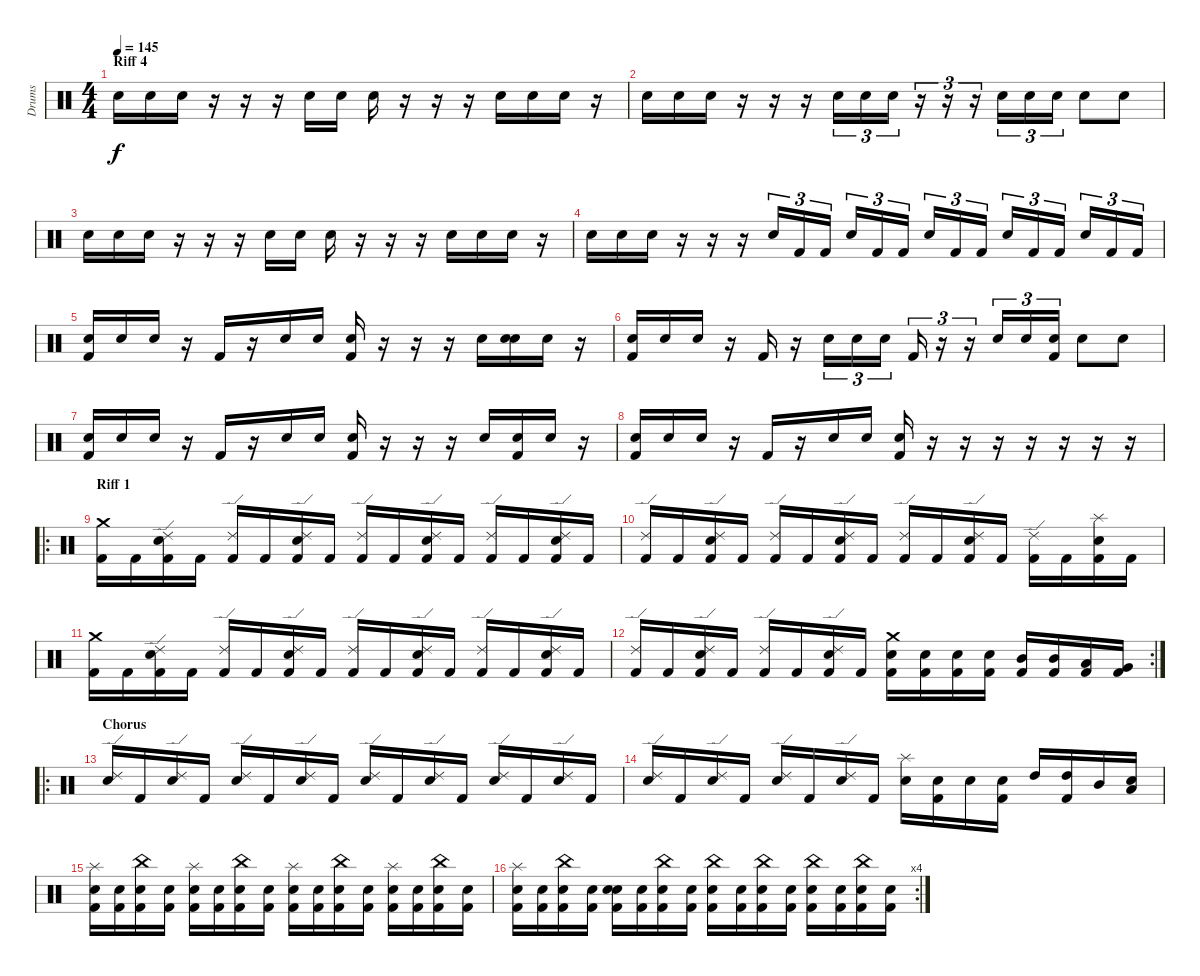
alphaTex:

\track ("Drums" "Drums") {instrument percussion}
\staff {score}
\articulation defaults
\ts (4 4)
\section ("" "Riff 4")
\tempo 145
\clef neutral
\ks c "Snare (hit) 2".16{dy f} "Snare (hit) 2".16 "Snare (hit) 2".16
r.16 r.16 r.16 "Snare (hit) 2".16 "Snare (hit) 2".16 "Snare (hit) 2".16 r.16 r.16 r.16 "Snare (hit) 2".16 "Snare (hit) 2".16 "Snare (hit) 2".16 r.16 |
"Snare (hit) 2".16 "Snare (hit) 2".16 "Snare (hit) 2".16 r.16 r.16 r.16 "Snare (hit) 2".16{tu (3 2)} "Snare (hit) 2".16{tu (3 2)} "Snare (hit) 2".16{tu (3 2)} r.16{tu (3 2)} r.16{tu (3 2)} r.16{tu (3 2)} "Snare (hit) 2".16{tu (3 2)} "Snare (hit) 2".16{tu (3 2)} "Snare (hit) 2".16{tu (3 2)} "Snare (hit) 2".8 "Snare (hit) 2".8 |
"Snare (hit) 2".16 "Snare (hit) 2".16 "Snare (hit) 2".16 r.16 r.16 r.16 "Snare (hit) 2".16 "Snare (hit) 2".16 "Snare (hit) 2".16 r.16 r.16 r.16 "Snare (hit) 2".16 "Snare (hit) 2".16 "Snare (hit) 2".16 r.16 |
"Snare (hit) 2".16 "Snare (hit) 2".16 "Snare (hit) 2".16 r.16 r.16 r.16 "Snare (hit) 2".16{tu (3 2)} "Kick (hit) 2".16{tu (3 2)} "Kick (hit) 2".16{tu (3 2)} "Snare (hit) 2".16{tu (3 2)} "Kick (hit) 2".16{tu (3 2)} "Kick (hit) 2".16{tu (3 2)} "Snare (hit) 2".16{tu (3 2)} "Kick (hit) 2".16{tu (3 2)} "Kick (hit) 2".16{tu (3 2)} "Snare (hit) 2".16{tu (3 2)} "Kick (hit) 2".16{tu (3 2)} "Kick (hit) 2".16{tu (3 2)} "Snare (hit) 2".16{tu (3 2)} "Kick (hit) 2".16{tu (3 2)} "Kick (hit) 2".16{tu (3 2)} |
("Kick (hit) 2" "Snare (hit) 2").16 "Snare (hit) 2".16 "Snare (hit) 2".16 r.16 "Kick (hit) 2".16 r.16 "Snare (hit) 2".16 "Snare (hit) 2".16 ("Kick (hit) 2" "Snare (hit) 2").16 r.16 r.16 r.16 "Snare (hit) 2".16 ("Snare (hit) 2" "Snare (hit) 2").16 "Snare (hit) 2".16 r.16 |
("Kick (hit) 2" "Snare (hit) 2").16 "Snare (hit) 2".16 "Snare (hit) 2".16 r.16 "Kick (hit) 2".16 r.16 "Snare (hit) 2".16{tu (3 2)} "Snare (hit) 2".16{tu (3 2)} "Snare (hit) 2".16{tu (3 2)} "Kick (hit) 2".16{tu (3 2)} r.16{tu (3 2)} r.16{tu (3 2)} "Snare (hit) 2".16{tu (3 2)} "Snare (hit) 2".16{tu (3 2)} ("Kick (hit) 2" "Snare (hit) 2").16{tu (3 2)} "Snare (hit) 2".8 "Snare (hit) 2".8 |
("Kick (hit) 2" "Snare (hit) 2").16 "Snare (hit) 2".16 "Snare (hit) 2".16 r.16 "Kick (hit) 2".16 r.16 "Snare (hit) 2".16 "Snare (hit) 2".16 ("Kick (hit) 2" "Snare (hit) 2").16 r.16 r.16 r.16 "Snare (hit) 2".16 ("Kick (hit) 2" "Snare (hit) 2").16 "Snare (hit) 2".16 r.16 |
("Kick (hit) 2" "Snare (hit) 2").16 "Snare (hit) 2".16 "Snare (hit) 2".16 r.16 "Kick (hit) 2".16 r.16 "Snare (hit) 2".16 "Snare (hit) 2".16 ("Kick (hit) 2" "Snare (hit) 2").16 r.16 r.16 r.16 r.16 r.16 r.16 r.16 |
\ro
\section ("" "Riff 1")
("Kick (hit) 2" "Crash medium (hit)").16 "Kick (hit) 2".16 ("Kick (hit) 2" "Snare (hit) 2" "Ride (edge) 2").16 "Kick (hit) 2".16 ("Kick (hit) 2" "Ride (edge) 2").16 "Kick (hit) 2".16 ("Kick (hit) 2" "Snare (hit) 2" "Ride (edge) 2").16 "Kick (hit) 2".16 ("Kick (hit) 2" "Ride (edge) 2").16 "Kick (hit) 2".16 ("Kick (hit) 2" "Snare (hit) 2" "Ride (edge) 2").16 "Kick (hit) 2".16 ("Kick (hit) 2" "Ride (edge) 2").16 "Kick (hit) 2".16 ("Kick (hit) 2" "Snare (hit) 2" "Ride (edge) 2").16 "Kick (hit) 2".16 |
("Kick (hit) 2" "Ride (edge) 2").16 "Kick (hit) 2".16 ("Kick (hit) 2" "Snare (hit) 2" "Ride (edge) 2").16 "Kick (hit) 2".16 ("Kick (hit) 2" "Ride (edge) 2").16 "Kick (hit) 2".16 ("Kick (hit) 2" "Snare (hit) 2" "Ride (edge) 2").16 "Kick (hit) 2".16 ("Kick (hit) 2" "Ride (edge) 2").16 "Kick (hit) 2".16 ("Kick (hit) 2" "Snare (hit) 2" "Ride (edge) 2").16 "Kick (hit) 2".16 ("Kick (hit) 2" "Ride (edge) 2").16 "Kick (hit) 2".16 ("Kick (hit) 2" "Snare (hit) 2" "Splash (hit)").16 "Kick (hit) 2".16 |
("Kick (hit) 2" "Crash medium (hit)").16 "Kick (hit) 2".16 ("Kick (hit) 2" "Snare (hit) 2" "Ride (edge) 2").16 "Kick (hit) 2".16 ("Kick (hit) 2" "Ride (edge) 2").16 "Kick (hit) 2".16 ("Kick (hit) 2" "Snare (hit) 2" "Ride (edge) 2").16 "Kick (hit) 2".16 ("Kick (hit) 2" "Ride (edge) 2").16 "Kick (hit) 2".16 ("Kick (hit) 2" "Snare (hit) 2" "Ride (edge) 2").16 "Kick (hit) 2".16 ("Kick (hit) 2" "Ride (edge) 2").16 "Kick (hit) 2".16 ("Kick (hit) 2" "Snare (hit) 2" "Ride (edge) 2").16 "Kick (hit) 2".16 |
\rc 2
("Kick (hit) 2" "Ride (edge) 2").16 "Kick (hit) 2".16 ("Kick (hit) 2" "Snare (hit) 2" "Ride (edge) 2").16 "Kick (hit) 2".16 ("Kick (hit) 2" "Ride (edge) 2").16 "Kick (hit) 2".16 ("Kick (hit) 2" "Snare (hit) 2" "Ride (edge) 2").16 "Kick (hit) 2".16 ("Kick (hit) 2" "Snare (hit) 2" "Crash medium (hit)").16 ("Kick (hit) 2" "Snare (hit) 2").16 ("Kick (hit) 2" "Snare (hit) 2").16 ("Kick (hit) 2" "Snare (hit) 2").16 ("Kick (hit) 2" "Mid Tom (hit)").16 ("Kick (hit) 2" "Mid Tom (hit)").16 ("Kick (hit) 2" "Low Tom (hit)").16 ("Kick (hit) 2" "Very Low Tom (hit)").16 |
\ro
\section ("" "Chorus")
("Snare (hit) 2" "Ride (edge) 2").16 "Kick (hit) 2".16 ("Snare (hit) 2" "Ride (edge) 2").16 "Kick (hit) 2".16 ("Snare (hit) 2" "Ride (edge) 2").16 "Kick (hit) 2".16 ("Snare (hit) 2" "Ride (edge) 2").16 "Kick (hit) 2".16 ("Snare (hit) 2" "Ride (edge) 2").16 "Kick (hit) 2".16 ("Snare (hit) 2" "Ride (edge) 2").16 "Kick (hit) 2".16 ("Snare (hit) 2" "Ride (edge) 2").16 "Kick (hit) 2".16 ("Snare (hit) 2" "Ride (edge) 2").16 "Kick (hit) 2".16 |
("Snare (hit) 2" "Ride (edge) 2").16 "Kick (hit) 2".16 ("Snare (hit) 2" "Ride (edge) 2").16 "Kick (hit) 2".16 ("Snare (hit) 2" "Ride (edge) 2").16 "Kick (hit) 2".16 ("Snare (hit) 2" "Ride (edge) 2").16 "Kick (hit) 2".16 ("Snare (hit) 2" "Splash (hit)").16 ("Kick (hit) 2" "Snare (hit) 2").16 "Snare (hit) 2".16 ("Kick (hit) 2" "Snare (hit) 2").16 "High Tom (hit)".16 ("Kick (hit) 2" "High Tom (hit)").16 "Mid Tom (hit)".16 ("Snare (hit)" "Low Tom (hit)").16 |
("Kick (hit) 2" "Snare (hit) 2" "Splash (hit)").16 ("Kick (hit) 2" "Snare (hit) 2").16 ("Kick (hit) 2" "Snare (hit) 2" "China (hit)").16 ("Kick (hit) 2" "Snare (hit) 2").16 ("Kick (hit) 2" "Snare (hit) 2" "Splash (hit)").16 ("Kick (hit) 2" "Snare (hit) 2").16 ("Kick (hit) 2" "Snare (hit) 2" "China (hit)").16 ("Kick (hit) 2" "Snare (hit) 2").16 ("Kick (hit) 2" "Snare (hit) 2" "Splash (hit)").16 ("Kick (hit) 2" "Snare (hit) 2").16 ("Kick (hit) 2" "Snare (hit) 2" "China (hit)").16 ("Kick (hit) 2" "Snare (hit) 2").16 ("Kick (hit) 2" "Snare (hit) 2" "Splash (hit)").16 ("Kick (hit) 2" "Snare (hit) 2").16 ("Kick (hit) 2" "Snare (hit) 2" "China (hit)").16 ("Kick (hit) 2" "Snare (hit) 2").16 |
\rc 4
("Kick (hit) 2" "Snare (hit) 2" "Splash (hit)").16 ("Kick (hit) 2" "Snare (hit) 2").16 ("Kick (hit) 2" "Snare (hit) 2" "China (hit)").16 ("Kick (hit) 2" "Snare (hit) 2").16 ("Kick (hit) 2" "Snare (hit) 2" "Snare (hit)").16 ("Kick (hit) 2" "Snare (hit) 2").16 ("Kick (hit) 2" "Snare (hit) 2" "China (hit)").16 ("Kick (hit) 2" "Snare (hit) 2").16 ("Kick (hit) 2" "Snare (hit) 2" "China (hit)").16 ("Kick (hit) 2" "Snare (hit) 2").16 ("Kick (hit) 2" "Snare (hit) 2" "China (hit)").16 ("Kick (hit) 2" "Snare (hit) 2").16 ("Kick (hit) 2" "Snare (hit) 2" "China (hit)").16 ("Kick (hit) 2" "Snare (hit) 2").16 ("Kick (hit) 2" "Snare (hit) 2" "China (hit)").16 ("Kick (hit) 2" "Snare (hit) 2").16
